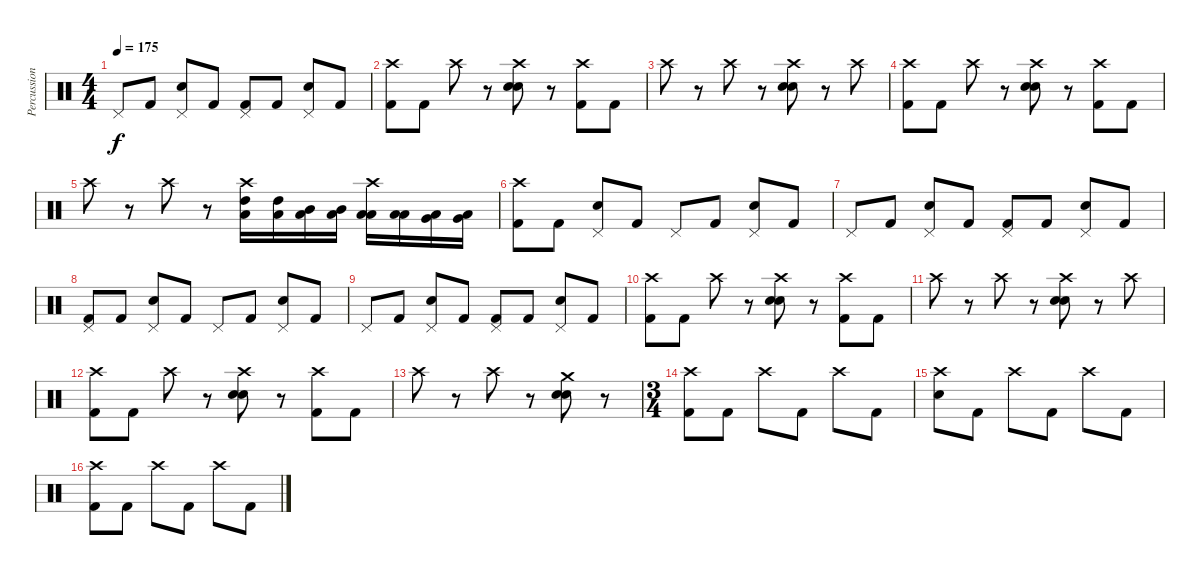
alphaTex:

\track ("Percussion" "Percussion") {instrument percussion}
\staff {score}
\articulation defaults
\ts (4 4)
\tempo 175
\clef neutral
\ks c "Pedal Hi-Hat (hit)".8{dy f} "Kick (hit) 2".8
("Pedal Hi-Hat (hit)" "Electric Snare (hit)").8 "Kick (hit) 2".8 ("Pedal Hi-Hat (hit)" "Kick (hit) 2").8 "Kick (hit) 2".8 ("Pedal Hi-Hat (hit)" "Electric Snare (hit)").8 "Kick (hit) 2".8 |
("Crash high (hit)" "Kick (hit) 2").8 "Kick (hit) 2".8 "Crash high (hit)".8 r.8 ("Crash high (hit)" "Electric Snare (hit)" "Electric Snare (hit)").8 r.8 ("Crash high (hit)" "Kick (hit) 2").8 "Kick (hit) 2".8 |
"Crash high (hit)".8 r.8 "Crash high (hit)".8 r.8 ("Crash high (hit)" "Electric Snare (hit)" "Electric Snare (hit)").8 r.8 "Crash high (hit)".8 |
("Crash high (hit)" "Kick (hit) 2").8 "Kick (hit) 2".8 "Crash high (hit)".8 r.8 ("Crash high (hit)" "Electric Snare (hit)" "Electric Snare (hit)").8 r.8 ("Crash high (hit)" "Kick (hit) 2").8 "Kick (hit) 2".8 |
"Crash high (hit)".8 r.8 "Crash high (hit)".8 r.8 ("Crash high (hit)" "Low Floor Tom (hit)" "High Tom (hit)").16 ("Low Floor Tom (hit)" "High Tom (hit)").16 ("Low Floor Tom (hit)" "Mid Tom (hit)").16 ("Low Floor Tom (hit)" "Mid Tom (hit)").16 ("Crash high (hit)" "Low Floor Tom (hit)" "Low Tom (hit)").16 ("Low Floor Tom (hit)" "Low Tom (hit)").16 ("Low Floor Tom (hit)" "Very Low Tom (hit)").16 ("Low Floor Tom (hit)" "Very Low Tom (hit)").16 |
("Crash high (hit)" "Kick (hit) 2").8 "Kick (hit) 2".8 ("Pedal Hi-Hat (hit)" "Electric Snare (hit)").8 "Kick (hit) 2".8 "Pedal Hi-Hat (hit)".8 "Kick (hit) 2".8 ("Pedal Hi-Hat (hit)" "Electric Snare (hit)").8 "Kick (hit) 2".8 |
"Pedal Hi-Hat (hit)".8 "Kick (hit) 2".8 ("Pedal Hi-Hat (hit)" "Electric Snare (hit)").8 "Kick (hit) 2".8 ("Pedal Hi-Hat (hit)" "Kick (hit) 2").8 "Kick (hit) 2".8 ("Pedal Hi-Hat (hit)" "Electric Snare (hit)").8 "Kick (hit) 2".8 |
("Pedal Hi-Hat (hit)" "Kick (hit) 2").8 "Kick (hit) 2".8 ("Pedal Hi-Hat (hit)" "Electric Snare (hit)").8 "Kick (hit) 2".8 "Pedal Hi-Hat (hit)".8 "Kick (hit) 2".8 ("Pedal Hi-Hat (hit)" "Electric Snare (hit)").8 "Kick (hit) 2".8 |
"Pedal Hi-Hat (hit)".8 "Kick (hit) 2".8 ("Pedal Hi-Hat (hit)" "Electric Snare (hit)").8 "Kick (hit) 2".8 ("Pedal Hi-Hat (hit)" "Kick (hit) 2").8 "Kick (hit) 2".8 ("Pedal Hi-Hat (hit)" "Electric Snare (hit)").8 "Kick (hit) 2".8 |
("Crash high (hit)" "Kick (hit) 2").8 "Kick (hit) 2".8 "Crash high (hit)".8 r.8 ("Crash high (hit)" "Electric Snare (hit)" "Electric Snare (hit)").8 r.8 ("Crash high (hit)" "Kick (hit) 2").8 "Kick (hit) 2".8 |
"Crash high (hit)".8 r.8 "Crash high (hit)".8 r.8 ("Crash high (hit)" "Electric Snare (hit)" "Electric Snare (hit)").8 r.8 "Crash high (hit)".8 |
("Crash high (hit)" "Kick (hit) 2").8 "Kick (hit) 2".8 "Crash high (hit)".8 r.8 ("Crash high (hit)" "Electric Snare (hit)" "Electric Snare (hit)").8 r.8 ("Crash high (hit)" "Kick (hit) 2").8 "Kick (hit) 2".8 |
"Crash high (hit)".8 r.8 "Crash high (hit)".8 r.8 ("Crash medium (hit)" "Electric Snare (hit)" "Electric Snare (hit)").8 r.8 |
\ts (3 4)
("Crash high (hit)" "Kick (hit) 2").8 "Kick (hit) 2".8 "Crash high (hit)".8 "Kick (hit) 2".8 "Crash high (hit)".8 "Kick (hit) 2".8 |
("Crash high (hit)" "Electric Snare (hit)").8 "Kick (hit) 2".8 "Crash high (hit)".8 "Kick (hit) 2".8 "Crash high (hit)".8 "Kick (hit) 2".8 |
("Crash high (hit)" "Kick (hit) 2").8 "Kick (hit) 2".8 "Crash high (hit)".8 "Kick (hit) 2".8 "Crash high (hit)".8 "Kick (hit) 2".8
